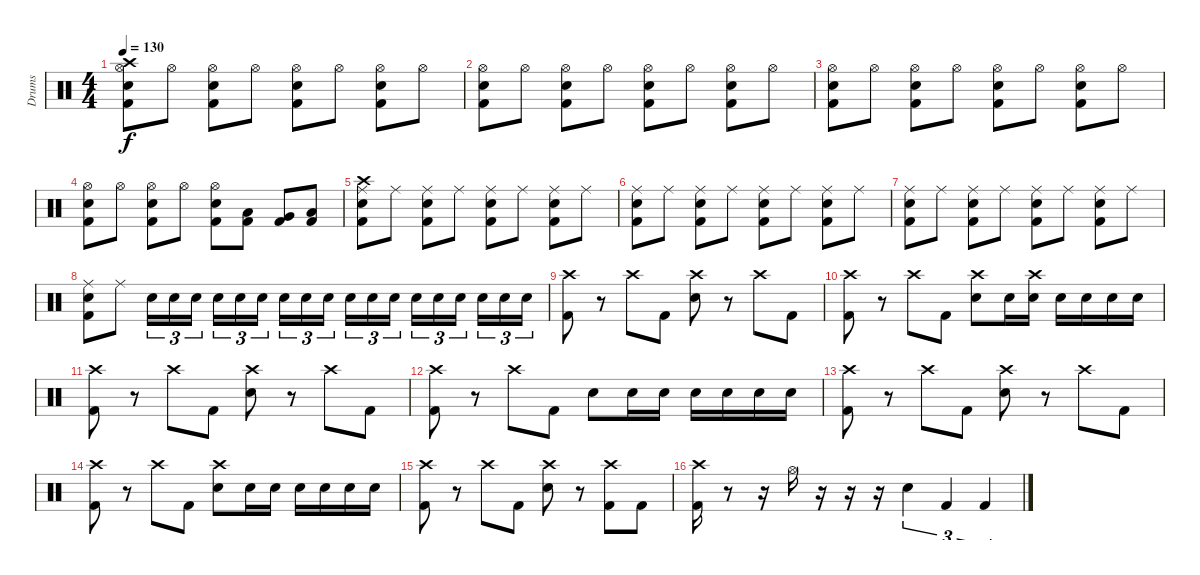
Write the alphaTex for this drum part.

\track ("Drums" "Drums") {instrument percussion}
\staff {score}
\articulation defaults
\ts (4 4)
\tempo 130
\clef neutral
\ks c
("Hi-Hat (open)" "Crash high (hit)" "Electric Snare (hit)" "Kick (hit) 2").8{dy f} "Hi-Hat (open)".8 ("Hi-Hat (open)" "Electric Snare (hit)" "Kick (hit) 2").8 "Hi-Hat (open)".8 ("Hi-Hat (open)" "Electric Snare (hit)" "Kick (hit) 2").8 "Hi-Hat (open)".8 ("Hi-Hat (open)" "Electric Snare (hit)" "Kick (hit) 2").8 "Hi-Hat (open)".8 |
("Hi-Hat (open)" "Electric Snare (hit)" "Kick (hit) 2").8 "Hi-Hat (open)".8 ("Hi-Hat (open)" "Electric Snare (hit)" "Kick (hit) 2").8 "Hi-Hat (open)".8 ("Hi-Hat (open)" "Electric Snare (hit)" "Kick (hit) 2").8 "Hi-Hat (open)".8 ("Hi-Hat (open)" "Electric Snare (hit)" "Kick (hit) 2").8 "Hi-Hat (open)".8 |
("Hi-Hat (open)" "Electric Snare (hit)" "Kick (hit) 2").8 "Hi-Hat (open)".8 ("Hi-Hat (open)" "Electric Snare (hit)" "Kick (hit) 2").8 "Hi-Hat (open)".8 ("Hi-Hat (open)" "Electric Snare (hit)" "Kick (hit) 2").8 "Hi-Hat (open)".8 ("Hi-Hat (open)" "Electric Snare (hit)" "Kick (hit) 2").8 "Hi-Hat (open)".8 |
("Hi-Hat (open)" "Electric Snare (hit)" "Kick (hit) 2").8 "Hi-Hat (open)".8 ("Hi-Hat (open)" "Electric Snare (hit)" "Kick (hit) 2").8 "Hi-Hat (open)".8 ("Hi-Hat (open)" "Electric Snare (hit)" "Kick (hit) 2").8 ("Low Tom (hit)" "Kick (hit) 2").8 ("Very Low Tom (hit)" "Kick (hit) 2").8 ("Low Floor Tom (hit)" "Kick (hit) 2").8 |
("Ride (middle)" "Crash high (hit)" "Electric Snare (hit)" "Kick (hit) 2").8 "Ride (middle)".8 ("Ride (middle)" "Electric Snare (hit)" "Kick (hit) 2").8 "Ride (middle)".8 ("Ride (middle)" "Electric Snare (hit)" "Kick (hit) 2").8 "Ride (middle)".8 ("Ride (middle)" "Electric Snare (hit)" "Kick (hit) 2").8 "Ride (middle)".8 |
("Ride (middle)" "Electric Snare (hit)" "Kick (hit) 2").8 "Ride (middle)".8 ("Ride (middle)" "Electric Snare (hit)" "Kick (hit) 2").8 "Ride (middle)".8 ("Ride (middle)" "Electric Snare (hit)" "Kick (hit) 2").8 "Ride (middle)".8 ("Ride (middle)" "Electric Snare (hit)" "Kick (hit) 2").8 "Ride (middle)".8 |
("Ride (middle)" "Electric Snare (hit)" "Kick (hit) 2").8 "Ride (middle)".8 ("Ride (middle)" "Electric Snare (hit)" "Kick (hit) 2").8 "Ride (middle)".8 ("Ride (middle)" "Electric Snare (hit)" "Kick (hit) 2").8 "Ride (middle)".8 ("Ride (middle)" "Electric Snare (hit)" "Kick (hit) 2").8 "Ride (middle)".8 |
("Ride (middle)" "Electric Snare (hit)" "Kick (hit) 2").8 "Ride (middle)".8 "Electric Snare (hit)".16{tu (3 2)} "Electric Snare (hit)".16{tu (3 2)} "Electric Snare (hit)".16{tu (3 2)} "Electric Snare (hit)".16{tu (3 2)} "Electric Snare (hit)".16{tu (3 2)} "Electric Snare (hit)".16{tu (3 2)} "Electric Snare (hit)".16{tu (3 2)} "Electric Snare (hit)".16{tu (3 2)} "Electric Snare (hit)".16{tu (3 2)} "Electric Snare (hit)".16{tu (3 2)} "Electric Snare (hit)".16{tu (3 2)} "Electric Snare (hit)".16{tu (3 2)} "Electric Snare (hit)".16{tu (3 2)} "Electric Snare (hit)".16{tu (3 2)} "Electric Snare (hit)".16{tu (3 2)} "Electric Snare (hit)".16{tu (3 2)} "Electric Snare (hit)".16{tu (3 2)} "Electric Snare (hit)".16{tu (3 2)} |
("Crash high (hit)" "Kick (hit) 2").8 r.8 "Crash high (hit)".8 "Kick (hit) 2".8 ("Crash high (hit)" "Electric Snare (hit)").8 r.8 "Crash high (hit)".8 "Kick (hit) 2".8 |
("Crash high (hit)" "Kick (hit) 2").8 r.8 "Crash high (hit)".8 "Kick (hit) 2".8 ("Crash high (hit)" "Electric Snare (hit)").8 "Electric Snare (hit)".16 ("Crash high (hit)" "Electric Snare (hit)").16 "Electric Snare (hit)".16 "Electric Snare (hit)".16 "Electric Snare (hit)".16 "Electric Snare (hit)".16 |
("Crash high (hit)" "Kick (hit) 2").8 r.8 "Crash high (hit)".8 "Kick (hit) 2".8 ("Crash high (hit)" "Electric Snare (hit)").8 r.8 "Crash high (hit)".8 "Kick (hit) 2".8 |
("Crash high (hit)" "Kick (hit) 2").8 r.8 "Crash high (hit)".8 "Kick (hit) 2".8 "Electric Snare (hit)".8 "Electric Snare (hit)".16 "Electric Snare (hit)".16 "Electric Snare (hit)".16 "Electric Snare (hit)".16 "Electric Snare (hit)".16 "Electric Snare (hit)".16 |
("Crash high (hit)" "Kick (hit) 2").8 r.8 "Crash high (hit)".8 "Kick (hit) 2".8 ("Crash high (hit)" "Electric Snare (hit)").8 r.8 "Crash high (hit)".8 "Kick (hit) 2".8 |
("Crash high (hit)" "Kick (hit) 2").8 r.8 "Crash high (hit)".8 "Kick (hit) 2".8 ("Crash high (hit)" "Electric Snare (hit)").8 "Electric Snare (hit)".16 "Electric Snare (hit)".16 "Electric Snare (hit)".16 "Electric Snare (hit)".16 "Electric Snare (hit)".16 "Electric Snare (hit)".16 |
("Crash high (hit)" "Kick (hit) 2").8 r.8 "Crash high (hit)".8 "Kick (hit) 2".8 ("Crash high (hit)" "Electric Snare (hit)").8 r.8 ("Crash high (hit)" "Kick (hit) 2").8 "Kick (hit) 2".8 |
("Crash high (hit)" "Kick (hit) 2").16 r.8 r.16 "Hi-Hat (open)".16 r.16 r.16 r.16 "Electric Snare (hit)".4{tu (3 2)} "Kick (hit) 2".4{tu (3 2)} "Kick (hit) 2".4{tu (3 2)}
